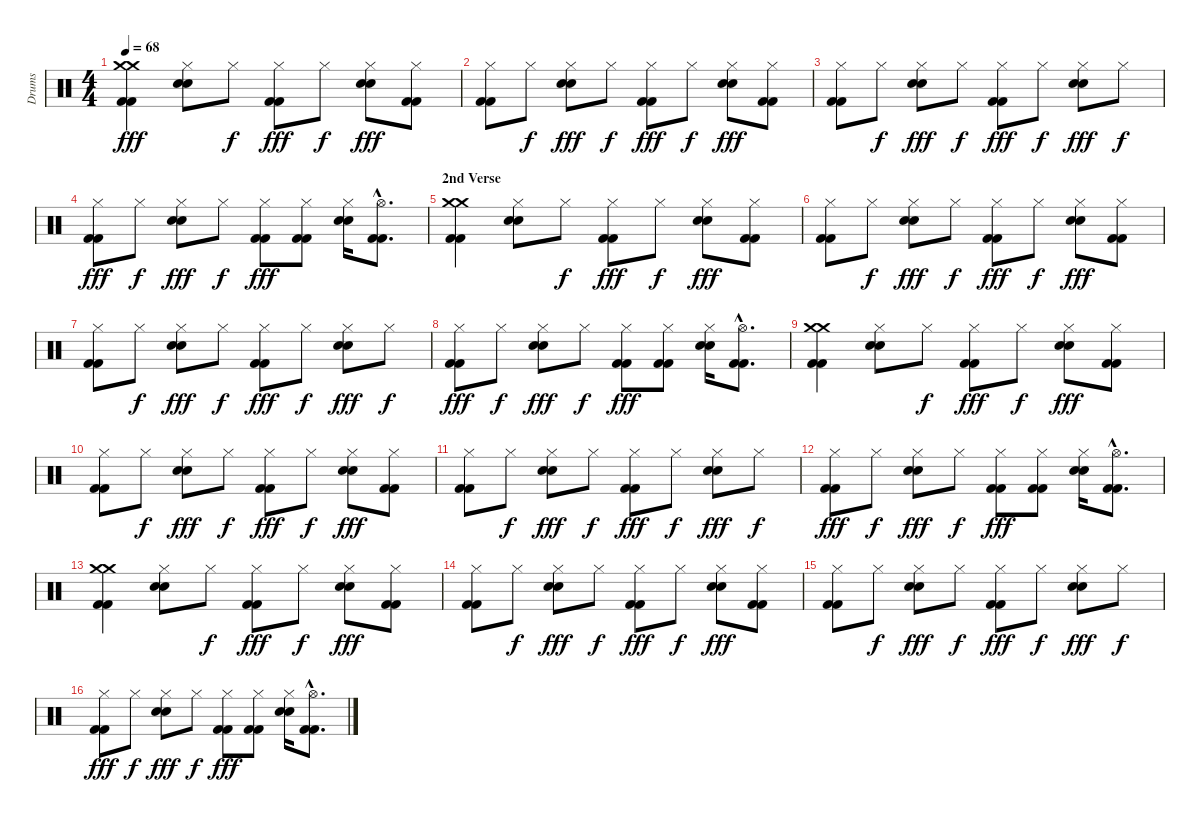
\track ("Drums" "Drums") {instrument percussion}
\staff {score}
\articulation defaults
\ts (4 4)
\tempo 68
\clef neutral
\ks c
("Crash medium (hit)" "Crash medium (hit)" "Kick (hit) 2" "Kick (hit) 2").4{dy fff} ("Hi-Hat (closed)" "Electric Snare (hit)" "Electric Snare (hit)").8 "Hi-Hat (closed)".8{dy f} ("Hi-Hat (closed)" "Kick (hit) 2" "Kick (hit) 2").8{dy fff} "Hi-Hat (closed)".8{dy f} ("Hi-Hat (closed)" "Electric Snare (hit)" "Electric Snare (hit)").8{dy fff} ("Hi-Hat (closed)" "Kick (hit) 2" "Kick (hit) 2").8 |
("Hi-Hat (closed)" "Kick (hit) 2" "Kick (hit) 2").8 "Hi-Hat (closed)".8{dy f} ("Hi-Hat (closed)" "Electric Snare (hit)" "Electric Snare (hit)").8{dy fff} "Hi-Hat (closed)".8{dy f} ("Hi-Hat (closed)" "Kick (hit) 2" "Kick (hit) 2").8{dy fff} "Hi-Hat (closed)".8{dy f} ("Hi-Hat (closed)" "Electric Snare (hit)" "Electric Snare (hit)").8{dy fff} ("Hi-Hat (closed)" "Kick (hit) 2" "Kick (hit) 2").8 |
("Hi-Hat (closed)" "Kick (hit) 2" "Kick (hit) 2").8 "Hi-Hat (closed)".8{dy f} ("Hi-Hat (closed)" "Electric Snare (hit)" "Electric Snare (hit)").8{dy fff} "Hi-Hat (closed)".8{dy f} ("Hi-Hat (closed)" "Kick (hit) 2" "Kick (hit) 2").8{dy fff} "Hi-Hat (closed)".8{dy f} ("Hi-Hat (closed)" "Electric Snare (hit)" "Electric Snare (hit)").8{dy fff} "Hi-Hat (closed)".8{dy f} |
("Hi-Hat (closed)" "Kick (hit) 2" "Kick (hit) 2").8{dy fff} "Hi-Hat (closed)".8{dy f} ("Hi-Hat (closed)" "Electric Snare (hit)" "Electric Snare (hit)").8{dy fff} "Hi-Hat (closed)".8{dy f} ("Hi-Hat (closed)" "Kick (hit) 2" "Kick (hit) 2").8{dy fff} ("Hi-Hat (closed)" "Kick (hit) 2" "Kick (hit) 2").8 ("Hi-Hat (closed)" "Electric Snare (hit)" "Electric Snare (hit)").16 ("Hi-Hat (open)"{hac} "Kick (hit) 2"{hac} "Kick (hit) 2"{hac}).8{d} |
\section ("" "2nd Verse")
("Crash medium (hit)" "Crash medium (hit)" "Kick (hit) 2" "Kick (hit) 2").4 ("Hi-Hat (closed)" "Electric Snare (hit)" "Electric Snare (hit)").8 "Hi-Hat (closed)".8{dy f} ("Hi-Hat (closed)" "Kick (hit) 2" "Kick (hit) 2").8{dy fff} "Hi-Hat (closed)".8{dy f} ("Hi-Hat (closed)" "Electric Snare (hit)" "Electric Snare (hit)").8{dy fff} ("Hi-Hat (closed)" "Kick (hit) 2" "Kick (hit) 2").8 |
("Hi-Hat (closed)" "Kick (hit) 2" "Kick (hit) 2").8 "Hi-Hat (closed)".8{dy f} ("Hi-Hat (closed)" "Electric Snare (hit)" "Electric Snare (hit)").8{dy fff} "Hi-Hat (closed)".8{dy f} ("Hi-Hat (closed)" "Kick (hit) 2" "Kick (hit) 2").8{dy fff} "Hi-Hat (closed)".8{dy f} ("Hi-Hat (closed)" "Electric Snare (hit)" "Electric Snare (hit)").8{dy fff} ("Hi-Hat (closed)" "Kick (hit) 2" "Kick (hit) 2").8 |
("Hi-Hat (closed)" "Kick (hit) 2" "Kick (hit) 2").8 "Hi-Hat (closed)".8{dy f} ("Hi-Hat (closed)" "Electric Snare (hit)" "Electric Snare (hit)").8{dy fff} "Hi-Hat (closed)".8{dy f} ("Hi-Hat (closed)" "Kick (hit) 2" "Kick (hit) 2").8{dy fff} "Hi-Hat (closed)".8{dy f} ("Hi-Hat (closed)" "Electric Snare (hit)" "Electric Snare (hit)").8{dy fff} "Hi-Hat (closed)".8{dy f} |
("Hi-Hat (closed)" "Kick (hit) 2" "Kick (hit) 2").8{dy fff} "Hi-Hat (closed)".8{dy f} ("Hi-Hat (closed)" "Electric Snare (hit)" "Electric Snare (hit)").8{dy fff} "Hi-Hat (closed)".8{dy f} ("Hi-Hat (closed)" "Kick (hit) 2" "Kick (hit) 2").8{dy fff} ("Hi-Hat (closed)" "Kick (hit) 2" "Kick (hit) 2").8 ("Hi-Hat (closed)" "Electric Snare (hit)" "Electric Snare (hit)").16 ("Hi-Hat (open)"{hac} "Kick (hit) 2"{hac} "Kick (hit) 2"{hac}).8{d} |
("Crash medium (hit)" "Crash medium (hit)" "Kick (hit) 2" "Kick (hit) 2").4 ("Hi-Hat (closed)" "Electric Snare (hit)" "Electric Snare (hit)").8 "Hi-Hat (closed)".8{dy f} ("Hi-Hat (closed)" "Kick (hit) 2" "Kick (hit) 2").8{dy fff} "Hi-Hat (closed)".8{dy f} ("Hi-Hat (closed)" "Electric Snare (hit)" "Electric Snare (hit)").8{dy fff} ("Hi-Hat (closed)" "Kick (hit) 2" "Kick (hit) 2").8 |
("Hi-Hat (closed)" "Kick (hit) 2" "Kick (hit) 2").8 "Hi-Hat (closed)".8{dy f} ("Hi-Hat (closed)" "Electric Snare (hit)" "Electric Snare (hit)").8{dy fff} "Hi-Hat (closed)".8{dy f} ("Hi-Hat (closed)" "Kick (hit) 2" "Kick (hit) 2").8{dy fff} "Hi-Hat (closed)".8{dy f} ("Hi-Hat (closed)" "Electric Snare (hit)" "Electric Snare (hit)").8{dy fff} ("Hi-Hat (closed)" "Kick (hit) 2" "Kick (hit) 2").8 |
("Hi-Hat (closed)" "Kick (hit) 2" "Kick (hit) 2").8 "Hi-Hat (closed)".8{dy f} ("Hi-Hat (closed)" "Electric Snare (hit)" "Electric Snare (hit)").8{dy fff} "Hi-Hat (closed)".8{dy f} ("Hi-Hat (closed)" "Kick (hit) 2" "Kick (hit) 2").8{dy fff} "Hi-Hat (closed)".8{dy f} ("Hi-Hat (closed)" "Electric Snare (hit)" "Electric Snare (hit)").8{dy fff} "Hi-Hat (closed)".8{dy f} |
("Hi-Hat (closed)" "Kick (hit) 2" "Kick (hit) 2").8{dy fff} "Hi-Hat (closed)".8{dy f} ("Hi-Hat (closed)" "Electric Snare (hit)" "Electric Snare (hit)").8{dy fff} "Hi-Hat (closed)".8{dy f} ("Hi-Hat (closed)" "Kick (hit) 2" "Kick (hit) 2").8{dy fff} ("Hi-Hat (closed)" "Kick (hit) 2" "Kick (hit) 2").8 ("Hi-Hat (closed)" "Electric Snare (hit)" "Electric Snare (hit)").16 ("Hi-Hat (open)"{hac} "Kick (hit) 2"{hac} "Kick (hit) 2"{hac}).8{d} |
("Crash medium (hit)" "Crash medium (hit)" "Kick (hit) 2" "Kick (hit) 2").4 ("Hi-Hat (closed)" "Electric Snare (hit)" "Electric Snare (hit)").8 "Hi-Hat (closed)".8{dy f} ("Hi-Hat (closed)" "Kick (hit) 2" "Kick (hit) 2").8{dy fff} "Hi-Hat (closed)".8{dy f} ("Hi-Hat (closed)" "Electric Snare (hit)" "Electric Snare (hit)").8{dy fff} ("Hi-Hat (closed)" "Kick (hit) 2" "Kick (hit) 2").8 |
("Hi-Hat (closed)" "Kick (hit) 2" "Kick (hit) 2").8 "Hi-Hat (closed)".8{dy f} ("Hi-Hat (closed)" "Electric Snare (hit)" "Electric Snare (hit)").8{dy fff} "Hi-Hat (closed)".8{dy f} ("Hi-Hat (closed)" "Kick (hit) 2" "Kick (hit) 2").8{dy fff} "Hi-Hat (closed)".8{dy f} ("Hi-Hat (closed)" "Electric Snare (hit)" "Electric Snare (hit)").8{dy fff} ("Hi-Hat (closed)" "Kick (hit) 2" "Kick (hit) 2").8 |
("Hi-Hat (closed)" "Kick (hit) 2" "Kick (hit) 2").8 "Hi-Hat (closed)".8{dy f} ("Hi-Hat (closed)" "Electric Snare (hit)" "Electric Snare (hit)").8{dy fff} "Hi-Hat (closed)".8{dy f} ("Hi-Hat (closed)" "Kick (hit) 2" "Kick (hit) 2").8{dy fff} "Hi-Hat (closed)".8{dy f} ("Hi-Hat (closed)" "Electric Snare (hit)" "Electric Snare (hit)").8{dy fff} "Hi-Hat (closed)".8{dy f} |
("Hi-Hat (closed)" "Kick (hit) 2" "Kick (hit) 2").8{dy fff} "Hi-Hat (closed)".8{dy f} ("Hi-Hat (closed)" "Electric Snare (hit)" "Electric Snare (hit)").8{dy fff} "Hi-Hat (closed)".8{dy f} ("Hi-Hat (closed)" "Kick (hit) 2" "Kick (hit) 2").8{dy fff} ("Hi-Hat (closed)" "Kick (hit) 2" "Kick (hit) 2").8 ("Hi-Hat (closed)" "Electric Snare (hit)" "Electric Snare (hit)").16 ("Hi-Hat (open)"{hac} "Kick (hit) 2"{hac} "Kick (hit) 2"{hac}).8{d}
